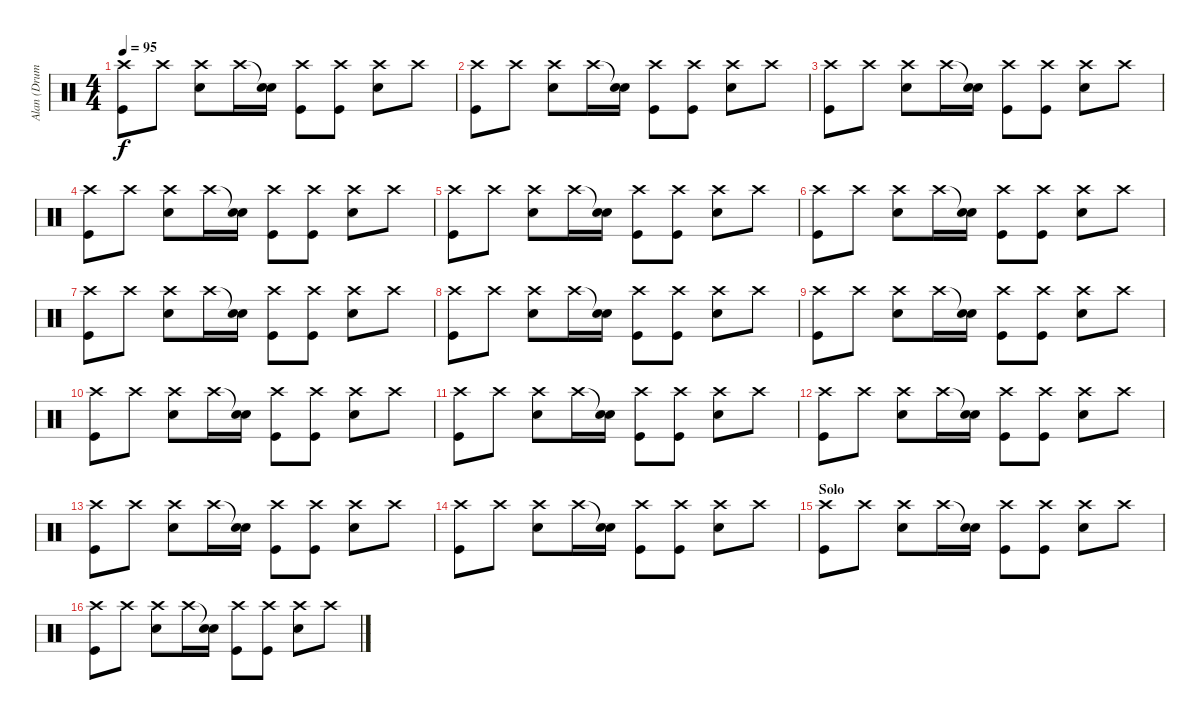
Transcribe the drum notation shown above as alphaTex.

\track ("Alan (Drums)" "Alan (Drum") {instrument percussion}
\staff {score}
\articulation defaults
\ts (4 4)
\tempo 95
\clef neutral
\ks c
("Crash high (hit)" "Kick (hit)").8{dy f} "Crash high (hit)".8 ("Crash high (hit)" "Electric Snare (hit)").8 "Crash high (hit)".16 ("Snare (hit)"{t} "Electric Snare (hit)").16 ("Crash high (hit)" "Kick (hit)").8 ("Crash high (hit)" "Kick (hit)").8 ("Crash high (hit)" "Electric Snare (hit)").8 "Crash high (hit)".8 |
("Crash high (hit)" "Kick (hit)").8 "Crash high (hit)".8 ("Crash high (hit)" "Electric Snare (hit)").8 "Crash high (hit)".16 ("Snare (hit)"{t} "Electric Snare (hit)").16 ("Crash high (hit)" "Kick (hit)").8 ("Crash high (hit)" "Kick (hit)").8 ("Crash high (hit)" "Electric Snare (hit)").8 "Crash high (hit)".8 |
("Crash high (hit)" "Kick (hit)").8 "Crash high (hit)".8 ("Crash high (hit)" "Electric Snare (hit)").8 "Crash high (hit)".16 ("Snare (hit)"{t} "Electric Snare (hit)").16 ("Crash high (hit)" "Kick (hit)").8 ("Crash high (hit)" "Kick (hit)").8 ("Crash high (hit)" "Electric Snare (hit)").8 "Crash high (hit)".8 |
("Crash high (hit)" "Kick (hit)").8 "Crash high (hit)".8 ("Crash high (hit)" "Electric Snare (hit)").8 "Crash high (hit)".16 ("Snare (hit)"{t} "Electric Snare (hit)").16 ("Crash high (hit)" "Kick (hit)").8 ("Crash high (hit)" "Kick (hit)").8 ("Crash high (hit)" "Electric Snare (hit)").8 "Crash high (hit)".8 |
("Crash high (hit)" "Kick (hit)").8 "Crash high (hit)".8 ("Crash high (hit)" "Electric Snare (hit)").8 "Crash high (hit)".16 ("Snare (hit)"{t} "Electric Snare (hit)").16 ("Crash high (hit)" "Kick (hit)").8 ("Crash high (hit)" "Kick (hit)").8 ("Crash high (hit)" "Electric Snare (hit)").8 "Crash high (hit)".8 |
("Crash high (hit)" "Kick (hit)").8 "Crash high (hit)".8 ("Crash high (hit)" "Electric Snare (hit)").8 "Crash high (hit)".16 ("Snare (hit)"{t} "Electric Snare (hit)").16 ("Crash high (hit)" "Kick (hit)").8 ("Crash high (hit)" "Kick (hit)").8 ("Crash high (hit)" "Electric Snare (hit)").8 "Crash high (hit)".8 |
("Crash high (hit)" "Kick (hit)").8 "Crash high (hit)".8 ("Crash high (hit)" "Electric Snare (hit)").8 "Crash high (hit)".16 ("Snare (hit)"{t} "Electric Snare (hit)").16 ("Crash high (hit)" "Kick (hit)").8 ("Crash high (hit)" "Kick (hit)").8 ("Crash high (hit)" "Electric Snare (hit)").8 "Crash high (hit)".8 |
("Crash high (hit)" "Kick (hit)").8 "Crash high (hit)".8 ("Crash high (hit)" "Electric Snare (hit)").8 "Crash high (hit)".16 ("Snare (hit)"{t} "Electric Snare (hit)").16 ("Crash high (hit)" "Kick (hit)").8 ("Crash high (hit)" "Kick (hit)").8 ("Crash high (hit)" "Electric Snare (hit)").8 "Crash high (hit)".8 |
("Crash high (hit)" "Kick (hit)").8 "Crash high (hit)".8 ("Crash high (hit)" "Electric Snare (hit)").8 "Crash high (hit)".16 ("Snare (hit)"{t} "Electric Snare (hit)").16 ("Crash high (hit)" "Kick (hit)").8 ("Crash high (hit)" "Kick (hit)").8 ("Crash high (hit)" "Electric Snare (hit)").8 "Crash high (hit)".8 |
("Crash high (hit)" "Kick (hit)").8 "Crash high (hit)".8 ("Crash high (hit)" "Electric Snare (hit)").8 "Crash high (hit)".16 ("Snare (hit)"{t} "Electric Snare (hit)").16 ("Crash high (hit)" "Kick (hit)").8 ("Crash high (hit)" "Kick (hit)").8 ("Crash high (hit)" "Electric Snare (hit)").8 "Crash high (hit)".8 |
("Crash high (hit)" "Kick (hit)").8 "Crash high (hit)".8 ("Crash high (hit)" "Electric Snare (hit)").8 "Crash high (hit)".16 ("Snare (hit)"{t} "Electric Snare (hit)").16 ("Crash high (hit)" "Kick (hit)").8 ("Crash high (hit)" "Kick (hit)").8 ("Crash high (hit)" "Electric Snare (hit)").8 "Crash high (hit)".8 |
("Crash high (hit)" "Kick (hit)").8 "Crash high (hit)".8 ("Crash high (hit)" "Electric Snare (hit)").8 "Crash high (hit)".16 ("Snare (hit)"{t} "Electric Snare (hit)").16 ("Crash high (hit)" "Kick (hit)").8 ("Crash high (hit)" "Kick (hit)").8 ("Crash high (hit)" "Electric Snare (hit)").8 "Crash high (hit)".8 |
("Crash high (hit)" "Kick (hit)").8 "Crash high (hit)".8 ("Crash high (hit)" "Electric Snare (hit)").8 "Crash high (hit)".16 ("Snare (hit)"{t} "Electric Snare (hit)").16 ("Crash high (hit)" "Kick (hit)").8 ("Crash high (hit)" "Kick (hit)").8 ("Crash high (hit)" "Electric Snare (hit)").8 "Crash high (hit)".8 |
("Crash high (hit)" "Kick (hit)").8 "Crash high (hit)".8 ("Crash high (hit)" "Electric Snare (hit)").8 "Crash high (hit)".16 ("Snare (hit)"{t} "Electric Snare (hit)").16 ("Crash high (hit)" "Kick (hit)").8 ("Crash high (hit)" "Kick (hit)").8 ("Crash high (hit)" "Electric Snare (hit)").8 "Crash high (hit)".8 |
\section ("" "Solo")
("Crash high (hit)" "Kick (hit)").8 "Crash high (hit)".8 ("Crash high (hit)" "Electric Snare (hit)").8 "Crash high (hit)".16 ("Snare (hit)"{t} "Electric Snare (hit)").16 ("Crash high (hit)" "Kick (hit)").8 ("Crash high (hit)" "Kick (hit)").8 ("Crash high (hit)" "Electric Snare (hit)").8 "Crash high (hit)".8 |
("Crash high (hit)" "Kick (hit)").8 "Crash high (hit)".8 ("Crash high (hit)" "Electric Snare (hit)").8 "Crash high (hit)".16 ("Snare (hit)"{t} "Electric Snare (hit)").16 ("Crash high (hit)" "Kick (hit)").8 ("Crash high (hit)" "Kick (hit)").8 ("Crash high (hit)" "Electric Snare (hit)").8 "Crash high (hit)".8
